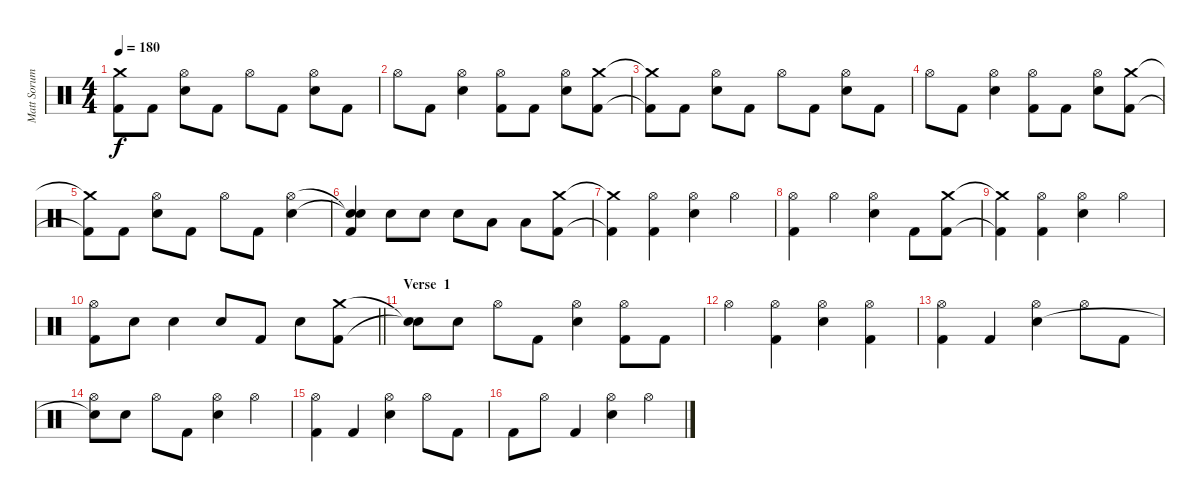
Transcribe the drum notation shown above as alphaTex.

\track ("Matt Sorum" "Matt Sorum") {instrument percussion}
\staff {score}
\articulation defaults
\ts (4 4)
\tempo 180
\clef neutral
\ks c
("Crash medium (hit)"{t} "Kick (hit) 2"{t}).8{dy f} "Kick (hit) 2".8 ("Hi-Hat (open)" "Electric Snare (hit)").8 "Kick (hit) 2".8 "Hi-Hat (open)".8 "Kick (hit) 2".8 ("Hi-Hat (open)" "Electric Snare (hit)").8 "Kick (hit) 2".8 |
"Hi-Hat (open)".8 "Kick (hit) 2".8 ("Hi-Hat (open)" "Electric Snare (hit)").4 ("Hi-Hat (open)" "Kick (hit) 2").8 "Kick (hit) 2".8 ("Hi-Hat (open)" "Electric Snare (hit)").8 ("Crash medium (hit)" "Kick (hit) 2").8 |
("Crash medium (hit)"{t} "Kick (hit) 2"{t}).8 "Kick (hit) 2".8 ("Hi-Hat (open)" "Electric Snare (hit)").8 "Kick (hit) 2".8 "Hi-Hat (open)".8 "Kick (hit) 2".8 ("Hi-Hat (open)" "Electric Snare (hit)").8 "Kick (hit) 2".8 |
"Hi-Hat (open)".8 "Kick (hit) 2".8 ("Hi-Hat (open)" "Electric Snare (hit)").4 ("Hi-Hat (open)" "Kick (hit) 2").8 "Kick (hit) 2".8 ("Hi-Hat (open)" "Electric Snare (hit)").8 ("Crash medium (hit)" "Kick (hit) 2").8 |
("Crash medium (hit)"{t} "Kick (hit) 2"{t}).8 "Kick (hit) 2".8 ("Hi-Hat (open)" "Electric Snare (hit)").8 "Kick (hit) 2".8 "Hi-Hat (open)".8 "Kick (hit) 2".8 ("Hi-Hat (open)" "Electric Snare (hit)").4 |
("Snare (hit)"{t} "Snare (hit)"{t} "Kick (hit) 2").4 "Electric Snare (hit)".8 "Electric Snare (hit)".8 "Electric Snare (hit)".8 "Low Tom (hit)".8 "Low Tom (hit)".8 ("Crash medium (hit)" "Kick (hit) 2").8 |
("Crash medium (hit)"{t} "Kick (hit) 2"{t}).4 ("Hi-Hat (open)" "Kick (hit) 2").4 ("Hi-Hat (open)" "Electric Snare (hit)").4 "Hi-Hat (open)".4 |
("Hi-Hat (open)" "Kick (hit) 2").4 "Hi-Hat (open)".4 ("Hi-Hat (open)" "Electric Snare (hit)").4 "Kick (hit) 2".8 ("Crash medium (hit)" "Kick (hit) 2").8 |
("Crash medium (hit)"{t} "Kick (hit) 2"{t}).4 ("Hi-Hat (open)" "Kick (hit) 2").4 ("Hi-Hat (open)" "Electric Snare (hit)").4 "Hi-Hat (open)".4 |
\barLineRight lightlight
("Hi-Hat (open)" "Kick (hit) 2").8 "Electric Snare (hit)".8 "Electric Snare (hit)".4 "Electric Snare (hit)".8 "Kick (hit) 2".8 "Electric Snare (hit)".8 ("Crash medium (hit)" "Kick (hit) 2").8 |
\section ("" "Verse  1")
("Snare (hit)"{t} "Snare (hit)"{t}).8 "Electric Snare (hit)".8 "Hi-Hat (open)".8 "Kick (hit) 2".8 ("Hi-Hat (open)" "Electric Snare (hit)").4 ("Hi-Hat (open)" "Kick (hit) 2").8 "Kick (hit) 2".8 |
"Hi-Hat (open)".4 ("Hi-Hat (open)" "Kick (hit) 2").4 ("Hi-Hat (open)" "Electric Snare (hit)").4 ("Hi-Hat (open)" "Kick (hit) 2").4 |
("Hi-Hat (open)" "Kick (hit) 2").4 "Kick (hit) 2".4 ("Hi-Hat (open)" "Electric Snare (hit)").4 "Hi-Hat (open)".8 "Kick (hit) 2".8 |
("Hi-Hat (open)" "Snare (hit)"{t}).8 "Electric Snare (hit)".8 "Hi-Hat (open)".8 "Kick (hit) 2".8 ("Hi-Hat (open)" "Electric Snare (hit)").4 "Hi-Hat (open)".4 |
("Hi-Hat (open)" "Kick (hit) 2").4 "Kick (hit) 2".4 ("Hi-Hat (open)" "Electric Snare (hit)").4 "Hi-Hat (open)".8 "Kick (hit) 2".8 |
"Kick (hit) 2".8 "Hi-Hat (open)".8 "Kick (hit) 2".4 ("Hi-Hat (open)" "Electric Snare (hit)").4 "Hi-Hat (open)".4
